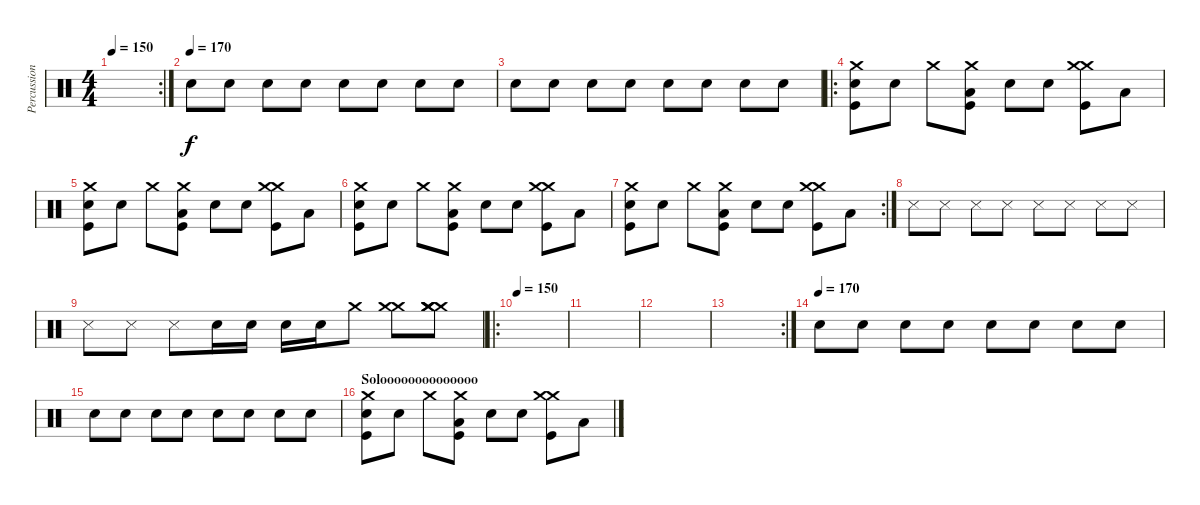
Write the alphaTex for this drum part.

\track ("Percussion" "Percussion") {instrument percussion}
\staff {score}
\articulation defaults
\rc 2
\ts (4 4)
\tempo 150
\clef neutral
\ks c
|
\tempo (170)
"Electric Snare (hit)".8 "Electric Snare (hit)".8 "Electric Snare (hit)".8 "Electric Snare (hit)".8 "Electric Snare (hit)".8 "Electric Snare (hit)".8 "Electric Snare (hit)".8 "Electric Snare (hit)".8 |
"Electric Snare (hit)".8 "Electric Snare (hit)".8 "Electric Snare (hit)".8 "Electric Snare (hit)".8 "Electric Snare (hit)".8 "Electric Snare (hit)".8 "Electric Snare (hit)".8 "Electric Snare (hit)".8 |
\ro
("Electric Snare (hit)" "Kick (hit)" "Crash medium (hit)").8 "Electric Snare (hit)".8 "Crash medium (hit)".8 ("Low Floor Tom (hit)" "Kick (hit)" "Crash medium (hit)").8 "Electric Snare (hit)".8 "Electric Snare (hit)".8 ("Crash medium (hit)" "Kick (hit)" "Crash medium (hit)").8 "Low Floor Tom (hit)".8 |
("Electric Snare (hit)" "Kick (hit)" "Crash medium (hit)").8 "Electric Snare (hit)".8 "Crash medium (hit)".8 ("Low Floor Tom (hit)" "Kick (hit)" "Crash medium (hit)").8 "Electric Snare (hit)".8 "Electric Snare (hit)".8 ("Crash medium (hit)" "Kick (hit)" "Crash medium (hit)").8 "Low Floor Tom (hit)".8 |
("Electric Snare (hit)" "Kick (hit)" "Crash medium (hit)").8 "Electric Snare (hit)".8 "Crash medium (hit)".8 ("Low Floor Tom (hit)" "Kick (hit)" "Crash medium (hit)").8 "Electric Snare (hit)".8 "Electric Snare (hit)".8 ("Crash medium (hit)" "Kick (hit)" "Crash medium (hit)").8 "Low Floor Tom (hit)".8 |
\rc 2
("Electric Snare (hit)" "Kick (hit)" "Crash medium (hit)").8 "Electric Snare (hit)".8 "Crash medium (hit)".8 ("Low Floor Tom (hit)" "Kick (hit)" "Crash medium (hit)").8 "Electric Snare (hit)".8 "Electric Snare (hit)".8 ("Crash medium (hit)" "Kick (hit)" "Crash medium (hit)").8 "Low Floor Tom (hit)".8 |
"Snare (side stick) 3".8 "Snare (side stick) 3".8 "Snare (side stick) 3".8 "Snare (side stick) 3".8 "Snare (side stick) 3".8 "Snare (side stick) 3".8 "Snare (side stick) 3".8 "Snare (side stick) 3".8 |
"Snare (side stick) 3".8 "Snare (side stick) 3".8 "Snare (side stick) 3".8 "Electric Snare (hit)".16 "Electric Snare (hit)".16 "Electric Snare (hit)".16 "Electric Snare (hit)".16 "Crash medium (hit)".8 ("Crash medium (hit)" "Crash medium (hit)").8 ("Crash medium (hit)" "Crash medium (hit)" "Crash medium (hit)" "Crash medium (hit)").8 |
\ro
\tempo 150
|
|
|
\rc 2
|
\tempo (170)
"Electric Snare (hit)".8 "Electric Snare (hit)".8 "Electric Snare (hit)".8 "Electric Snare (hit)".8 "Electric Snare (hit)".8 "Electric Snare (hit)".8 "Electric Snare (hit)".8 "Electric Snare (hit)".8 |
"Electric Snare (hit)".8 "Electric Snare (hit)".8 "Electric Snare (hit)".8 "Electric Snare (hit)".8 "Electric Snare (hit)".8 "Electric Snare (hit)".8 "Electric Snare (hit)".8 "Electric Snare (hit)".8 |
\section ("" "Soloooooooooooooo")
("Electric Snare (hit)" "Kick (hit)" "Crash medium (hit)").8 "Electric Snare (hit)".8 "Crash medium (hit)".8 ("Low Floor Tom (hit)" "Kick (hit)" "Crash medium (hit)").8 "Electric Snare (hit)".8 "Electric Snare (hit)".8 ("Crash medium (hit)" "Kick (hit)" "Crash medium (hit)").8 "Low Floor Tom (hit)".8
